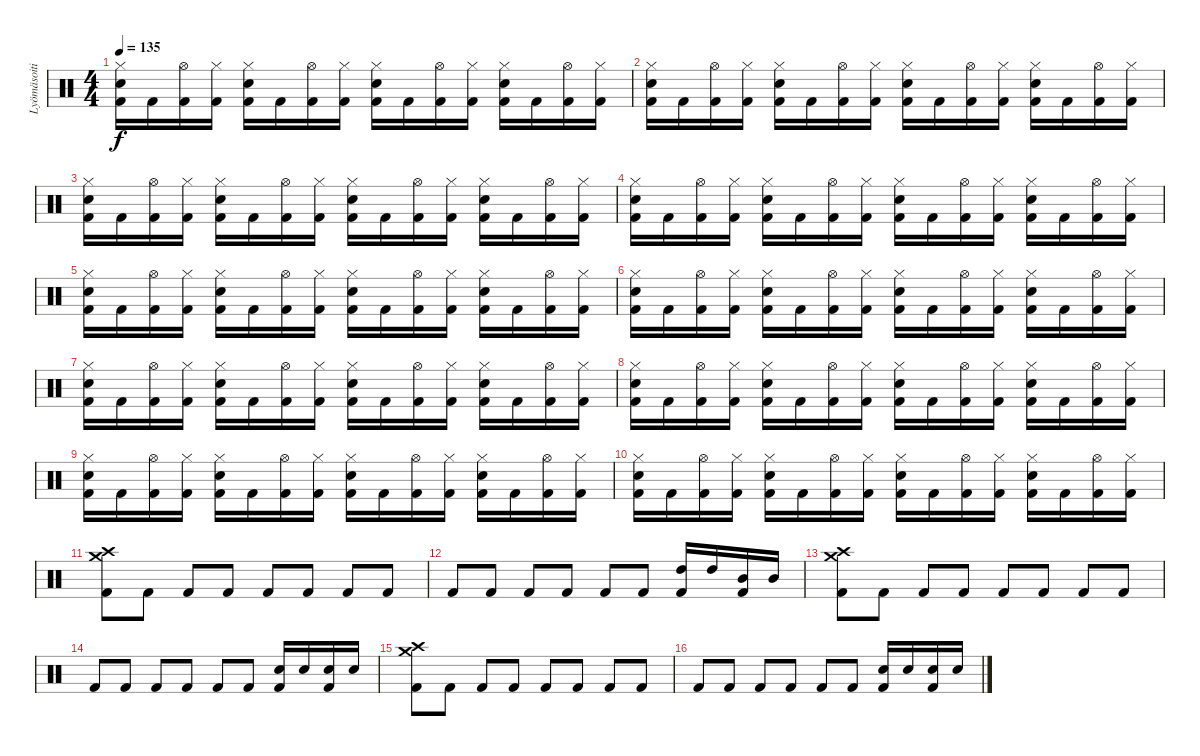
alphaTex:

\track ("Lyömäsoitin" "Lyömäsoiti") {instrument percussion}
\staff {score}
\articulation defaults
\ts (4 4)
\tempo 135
\clef neutral
\ks c
("Hi-Hat (closed)" "Electric Snare (hit)" "Kick (hit) 2").16{dy f} "Kick (hit) 2".16 ("Hi-Hat (open)" "Kick (hit) 2").16 ("Hi-Hat (closed)" "Kick (hit) 2").16 ("Hi-Hat (closed)" "Electric Snare (hit)" "Kick (hit) 2").16 "Kick (hit) 2".16 ("Hi-Hat (open)" "Kick (hit) 2").16 ("Hi-Hat (closed)" "Kick (hit) 2").16 ("Hi-Hat (closed)" "Electric Snare (hit)" "Kick (hit) 2").16 "Kick (hit) 2".16 ("Hi-Hat (open)" "Kick (hit) 2").16 ("Hi-Hat (closed)" "Kick (hit) 2").16 ("Hi-Hat (closed)" "Electric Snare (hit)" "Kick (hit) 2").16 "Kick (hit) 2".16 ("Hi-Hat (open)" "Kick (hit) 2").16 ("Hi-Hat (closed)" "Kick (hit) 2").16 |
("Hi-Hat (closed)" "Electric Snare (hit)" "Kick (hit) 2").16 "Kick (hit) 2".16 ("Hi-Hat (open)" "Kick (hit) 2").16 ("Hi-Hat (closed)" "Kick (hit) 2").16 ("Hi-Hat (closed)" "Electric Snare (hit)" "Kick (hit) 2").16 "Kick (hit) 2".16 ("Hi-Hat (open)" "Kick (hit) 2").16 ("Hi-Hat (closed)" "Kick (hit) 2").16 ("Hi-Hat (closed)" "Electric Snare (hit)" "Kick (hit) 2").16 "Kick (hit) 2".16 ("Hi-Hat (open)" "Kick (hit) 2").16 ("Hi-Hat (closed)" "Kick (hit) 2").16 ("Hi-Hat (closed)" "Electric Snare (hit)" "Kick (hit) 2").16 "Kick (hit) 2".16 ("Hi-Hat (open)" "Kick (hit) 2").16 ("Hi-Hat (closed)" "Kick (hit) 2").16 |
("Hi-Hat (closed)" "Electric Snare (hit)" "Kick (hit) 2").16 "Kick (hit) 2".16 ("Hi-Hat (open)" "Kick (hit) 2").16 ("Hi-Hat (closed)" "Kick (hit) 2").16 ("Hi-Hat (closed)" "Electric Snare (hit)" "Kick (hit) 2").16 "Kick (hit) 2".16 ("Hi-Hat (open)" "Kick (hit) 2").16 ("Hi-Hat (closed)" "Kick (hit) 2").16 ("Hi-Hat (closed)" "Electric Snare (hit)" "Kick (hit) 2").16 "Kick (hit) 2".16 ("Hi-Hat (open)" "Kick (hit) 2").16 ("Hi-Hat (closed)" "Kick (hit) 2").16 ("Hi-Hat (closed)" "Electric Snare (hit)" "Kick (hit) 2").16 "Kick (hit) 2".16 ("Hi-Hat (open)" "Kick (hit) 2").16 ("Hi-Hat (closed)" "Kick (hit) 2").16 |
("Hi-Hat (closed)" "Electric Snare (hit)" "Kick (hit) 2").16 "Kick (hit) 2".16 ("Hi-Hat (open)" "Kick (hit) 2").16 ("Hi-Hat (closed)" "Kick (hit) 2").16 ("Hi-Hat (closed)" "Electric Snare (hit)" "Kick (hit) 2").16 "Kick (hit) 2".16 ("Hi-Hat (open)" "Kick (hit) 2").16 ("Hi-Hat (closed)" "Kick (hit) 2").16 ("Hi-Hat (closed)" "Electric Snare (hit)" "Kick (hit) 2").16 "Kick (hit) 2".16 ("Hi-Hat (open)" "Kick (hit) 2").16 ("Hi-Hat (closed)" "Kick (hit) 2").16 ("Hi-Hat (closed)" "Electric Snare (hit)" "Kick (hit) 2").16 "Kick (hit) 2".16 ("Hi-Hat (open)" "Kick (hit) 2").16 ("Hi-Hat (closed)" "Kick (hit) 2").16 |
("Hi-Hat (closed)" "Electric Snare (hit)" "Kick (hit) 2").16 "Kick (hit) 2".16 ("Hi-Hat (open)" "Kick (hit) 2").16 ("Hi-Hat (closed)" "Kick (hit) 2").16 ("Hi-Hat (closed)" "Electric Snare (hit)" "Kick (hit) 2").16 "Kick (hit) 2".16 ("Hi-Hat (open)" "Kick (hit) 2").16 ("Hi-Hat (closed)" "Kick (hit) 2").16 ("Hi-Hat (closed)" "Electric Snare (hit)" "Kick (hit) 2").16 "Kick (hit) 2".16 ("Hi-Hat (open)" "Kick (hit) 2").16 ("Hi-Hat (closed)" "Kick (hit) 2").16 ("Hi-Hat (closed)" "Electric Snare (hit)" "Kick (hit) 2").16 "Kick (hit) 2".16 ("Hi-Hat (open)" "Kick (hit) 2").16 ("Hi-Hat (closed)" "Kick (hit) 2").16 |
("Hi-Hat (closed)" "Electric Snare (hit)" "Kick (hit) 2").16 "Kick (hit) 2".16 ("Hi-Hat (open)" "Kick (hit) 2").16 ("Hi-Hat (closed)" "Kick (hit) 2").16 ("Hi-Hat (closed)" "Electric Snare (hit)" "Kick (hit) 2").16 "Kick (hit) 2".16 ("Hi-Hat (open)" "Kick (hit) 2").16 ("Hi-Hat (closed)" "Kick (hit) 2").16 ("Hi-Hat (closed)" "Electric Snare (hit)" "Kick (hit) 2").16 "Kick (hit) 2".16 ("Hi-Hat (open)" "Kick (hit) 2").16 ("Hi-Hat (closed)" "Kick (hit) 2").16 ("Hi-Hat (closed)" "Electric Snare (hit)" "Kick (hit) 2").16 "Kick (hit) 2".16 ("Hi-Hat (open)" "Kick (hit) 2").16 ("Hi-Hat (closed)" "Kick (hit) 2").16 |
("Hi-Hat (closed)" "Electric Snare (hit)" "Kick (hit) 2").16 "Kick (hit) 2".16 ("Hi-Hat (open)" "Kick (hit) 2").16 ("Hi-Hat (closed)" "Kick (hit) 2").16 ("Hi-Hat (closed)" "Electric Snare (hit)" "Kick (hit) 2").16 "Kick (hit) 2".16 ("Hi-Hat (open)" "Kick (hit) 2").16 ("Hi-Hat (closed)" "Kick (hit) 2").16 ("Hi-Hat (closed)" "Electric Snare (hit)" "Kick (hit) 2").16 "Kick (hit) 2".16 ("Hi-Hat (open)" "Kick (hit) 2").16 ("Hi-Hat (closed)" "Kick (hit) 2").16 ("Hi-Hat (closed)" "Electric Snare (hit)" "Kick (hit) 2").16 "Kick (hit) 2".16 ("Hi-Hat (open)" "Kick (hit) 2").16 ("Hi-Hat (closed)" "Kick (hit) 2").16 |
("Hi-Hat (closed)" "Electric Snare (hit)" "Kick (hit) 2").16 "Kick (hit) 2".16 ("Hi-Hat (open)" "Kick (hit) 2").16 ("Hi-Hat (closed)" "Kick (hit) 2").16 ("Hi-Hat (closed)" "Electric Snare (hit)" "Kick (hit) 2").16 "Kick (hit) 2".16 ("Hi-Hat (open)" "Kick (hit) 2").16 ("Hi-Hat (closed)" "Kick (hit) 2").16 ("Hi-Hat (closed)" "Electric Snare (hit)" "Kick (hit) 2").16 "Kick (hit) 2".16 ("Hi-Hat (open)" "Kick (hit) 2").16 ("Hi-Hat (closed)" "Kick (hit) 2").16 ("Hi-Hat (closed)" "Electric Snare (hit)" "Kick (hit) 2").16 "Kick (hit) 2".16 ("Hi-Hat (open)" "Kick (hit) 2").16 ("Hi-Hat (closed)" "Kick (hit) 2").16 |
("Hi-Hat (closed)" "Electric Snare (hit)" "Kick (hit) 2").16 "Kick (hit) 2".16 ("Hi-Hat (open)" "Kick (hit) 2").16 ("Hi-Hat (closed)" "Kick (hit) 2").16 ("Hi-Hat (closed)" "Electric Snare (hit)" "Kick (hit) 2").16 "Kick (hit) 2".16 ("Hi-Hat (open)" "Kick (hit) 2").16 ("Hi-Hat (closed)" "Kick (hit) 2").16 ("Hi-Hat (closed)" "Electric Snare (hit)" "Kick (hit) 2").16 "Kick (hit) 2".16 ("Hi-Hat (open)" "Kick (hit) 2").16 ("Hi-Hat (closed)" "Kick (hit) 2").16 ("Hi-Hat (closed)" "Electric Snare (hit)" "Kick (hit) 2").16 "Kick (hit) 2".16 ("Hi-Hat (open)" "Kick (hit) 2").16 ("Hi-Hat (closed)" "Kick (hit) 2").16 |
("Hi-Hat (closed)" "Electric Snare (hit)" "Kick (hit) 2").16 "Kick (hit) 2".16 ("Hi-Hat (open)" "Kick (hit) 2").16 ("Hi-Hat (closed)" "Kick (hit) 2").16 ("Hi-Hat (closed)" "Electric Snare (hit)" "Kick (hit) 2").16 "Kick (hit) 2".16 ("Hi-Hat (open)" "Kick (hit) 2").16 ("Hi-Hat (closed)" "Kick (hit) 2").16 ("Hi-Hat (closed)" "Electric Snare (hit)" "Kick (hit) 2").16 "Kick (hit) 2".16 ("Hi-Hat (open)" "Kick (hit) 2").16 ("Hi-Hat (closed)" "Kick (hit) 2").16 ("Hi-Hat (closed)" "Electric Snare (hit)" "Kick (hit) 2").16 "Kick (hit) 2".16 ("Hi-Hat (open)" "Kick (hit) 2").16 ("Hi-Hat (closed)" "Kick (hit) 2").16 |
("Crash high (hit)" "Crash medium (hit)" "Kick (hit) 2").8 "Kick (hit) 2".8 "Kick (hit) 2".8 "Kick (hit) 2".8 "Kick (hit) 2".8 "Kick (hit) 2".8 "Kick (hit) 2".8 "Kick (hit) 2".8 |
"Kick (hit) 2".8 "Kick (hit) 2".8 "Kick (hit) 2".8 "Kick (hit) 2".8 "Kick (hit) 2".8 "Kick (hit) 2".8 ("High Tom (hit)" "Kick (hit) 2").16 "High Tom (hit)".16 ("Mid Tom (hit)" "Kick (hit) 2").16 "Mid Tom (hit)".16 |
("Crash high (hit)" "Crash medium (hit)" "Kick (hit) 2").8 "Kick (hit) 2".8 "Kick (hit) 2".8 "Kick (hit) 2".8 "Kick (hit) 2".8 "Kick (hit) 2".8 "Kick (hit) 2".8 "Kick (hit) 2".8 |
"Kick (hit) 2".8 "Kick (hit) 2".8 "Kick (hit) 2".8 "Kick (hit) 2".8 "Kick (hit) 2".8 "Kick (hit) 2".8 ("Electric Snare (hit)" "Kick (hit) 2").16 "Electric Snare (hit)".16 ("Electric Snare (hit)" "Kick (hit) 2").16 "Electric Snare (hit)".16 |
("Crash high (hit)" "Crash medium (hit)" "Kick (hit) 2").8 "Kick (hit) 2".8 "Kick (hit) 2".8 "Kick (hit) 2".8 "Kick (hit) 2".8 "Kick (hit) 2".8 "Kick (hit) 2".8 "Kick (hit) 2".8 |
"Kick (hit) 2".8 "Kick (hit) 2".8 "Kick (hit) 2".8 "Kick (hit) 2".8 "Kick (hit) 2".8 "Kick (hit) 2".8 ("Electric Snare (hit)" "Kick (hit) 2").16 "Electric Snare (hit)".16 ("Electric Snare (hit)" "Kick (hit) 2").16 "Electric Snare (hit)".16
